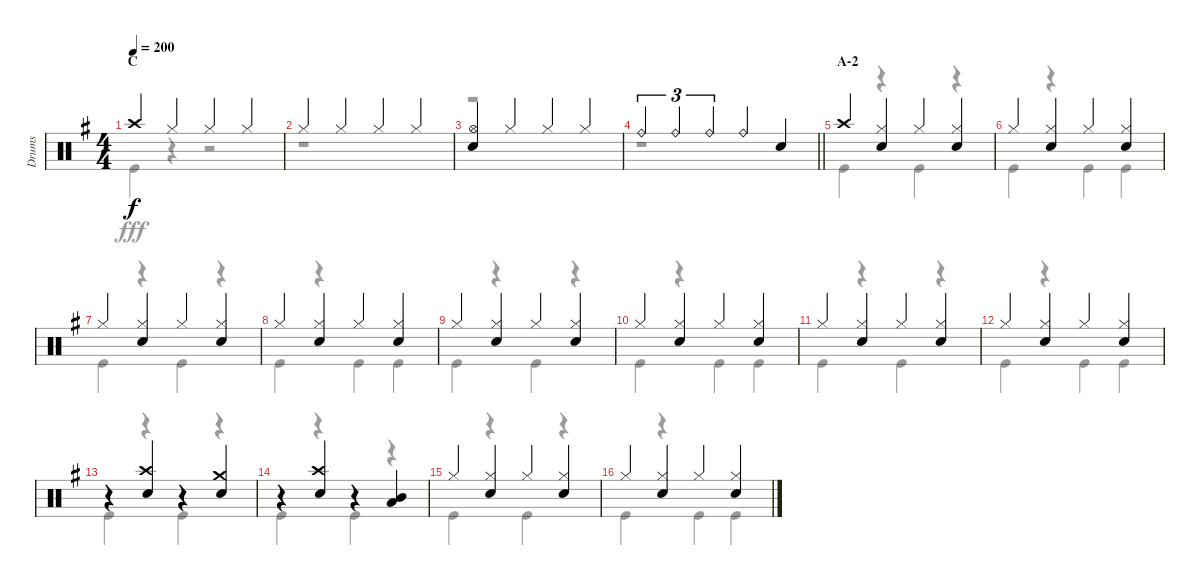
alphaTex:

\track ("Drums" "Drums") {instrument percussion}
\staff {score}
\articulation defaults
\voice
\ts (4 4)
\section ("" "C")
\tempo 200
\clef neutral
\ks g "Crash high (hit)".4{dy f} "Hi-Hat (closed)".4 "Hi-Hat (closed)".4 "Hi-Hat (closed)".4
|
"Hi-Hat (closed)".4 "Hi-Hat (closed)".4 "Hi-Hat (closed)".4 "Hi-Hat (closed)".4 |
("Hi-Hat (open)" "Snare (hit) 2").4 "Hi-Hat (closed)".4 "Hi-Hat (closed)".4 "Hi-Hat (closed)".4 |
\barLineRight lightlight "Ride (bell)".4{tu (3 2)} "Ride (bell)".4{tu (3 2)} "Ride (bell)".4{tu (3 2)} "Ride (bell)".4 "Snare (hit) 2".4
|
\section ("" "A-2")
"Crash high (hit)".4 ("Hi-Hat (closed)" "Snare (hit) 2").4 "Hi-Hat (closed)".4 ("Hi-Hat (closed)" "Snare (hit) 2").4 |
"Hi-Hat (closed)".4 ("Hi-Hat (closed)" "Snare (hit) 2").4 "Hi-Hat (closed)".4 ("Hi-Hat (closed)" "Snare (hit) 2").4 |
"Hi-Hat (closed)".4 ("Hi-Hat (closed)" "Snare (hit) 2").4 "Hi-Hat (closed)".4 ("Hi-Hat (closed)" "Snare (hit) 2").4 |
"Hi-Hat (closed)".4 ("Hi-Hat (closed)" "Snare (hit) 2").4 "Hi-Hat (closed)".4 ("Hi-Hat (closed)" "Snare (hit) 2").4 |
"Hi-Hat (closed)".4 ("Hi-Hat (closed)" "Snare (hit) 2").4 "Hi-Hat (closed)".4 ("Hi-Hat (closed)" "Snare (hit) 2").4 |
"Hi-Hat (closed)".4 ("Hi-Hat (closed)" "Snare (hit) 2").4 "Hi-Hat (closed)".4 ("Hi-Hat (closed)" "Snare (hit) 2").4 |
"Hi-Hat (closed)".4 ("Hi-Hat (closed)" "Snare (hit) 2").4 "Hi-Hat (closed)".4 ("Hi-Hat (closed)" "Snare (hit) 2").4 |
"Hi-Hat (closed)".4 ("Hi-Hat (closed)" "Snare (hit) 2").4 "Hi-Hat (closed)".4 ("Hi-Hat (closed)" "Snare (hit) 2").4 |
r.4 ("Crash high (hit)" "Snare (hit) 2").4 r.4 ("Crash medium (hit)" "Snare (hit) 2").4 |
r.4 ("Crash high (hit)" "Snare (hit) 2").4 r.4 ("Mid Tom (hit)" "Low Tom (hit)").4 |
"Hi-Hat (closed)".4 ("Hi-Hat (closed)" "Snare (hit) 2").4 "Hi-Hat (closed)".4 ("Hi-Hat (closed)" "Snare (hit) 2").4 |
"Hi-Hat (closed)".4 ("Hi-Hat (closed)" "Snare (hit) 2").4 "Hi-Hat (closed)".4 ("Hi-Hat (closed)" "Snare (hit) 2").4
\voice
\clef neutral
\ottava regular
\simile none
\ks g "Kick (hit)".4{dy fff}
r.4 r.2 |
r.1 |
r.1 |
\barLineRight lightlight
r.1 |
"Kick (hit)".4 r.4 "Kick (hit)".4 r.4 |
"Kick (hit)".4 r.4 "Kick (hit)".4 "Kick (hit)".4 |
"Kick (hit)".4 r.4 "Kick (hit)".4 r.4 |
"Kick (hit)".4 r.4 "Kick (hit)".4 "Kick (hit)".4 |
"Kick (hit)".4 r.4 "Kick (hit)".4 r.4 |
"Kick (hit)".4 r.4 "Kick (hit)".4 "Kick (hit)".4 |
"Kick (hit)".4 r.4 "Kick (hit)".4 r.4 |
"Kick (hit)".4 r.4 "Kick (hit)".4 "Kick (hit)".4 |
"Kick (hit)".4 r.4 "Kick (hit)".4 r.4 |
"Kick (hit)".4 r.4 "Kick (hit)".4 r.4 |
"Kick (hit)".4 r.4 "Kick (hit)".4 r.4 |
"Kick (hit)".4 r.4 "Kick (hit)".4 "Kick (hit)".4
